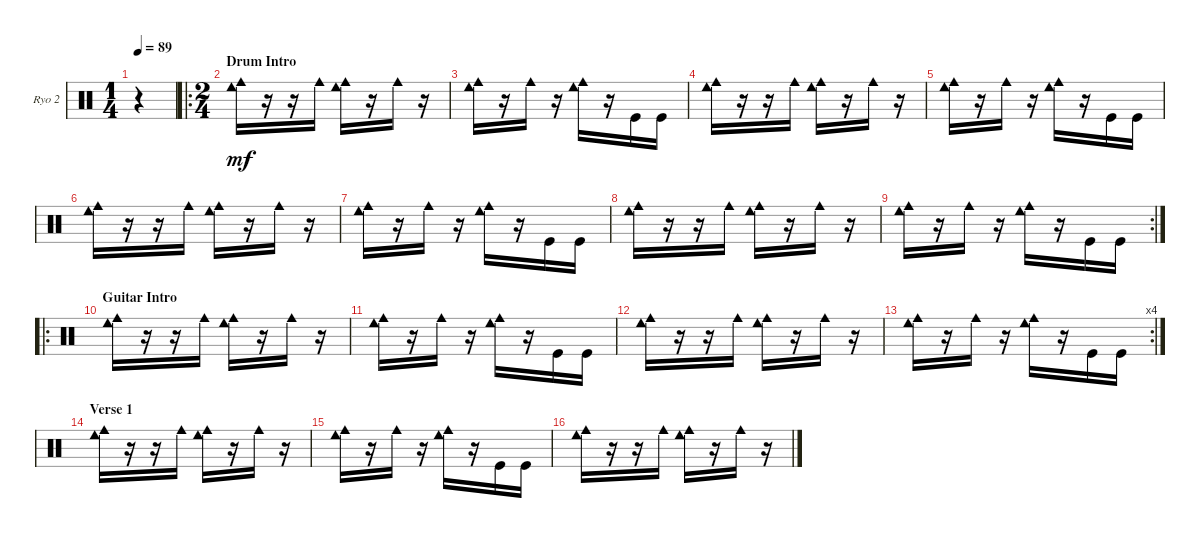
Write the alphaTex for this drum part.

\bracketExtendMode groupsimilarinstruments
\firstSystemTrackNameOrientation horizontal
\otherSystemsTrackNameOrientation horizontal
\track ("Ryo2 [Additional Drums]" "Ryo 2") {instrument percussion}
\staff {score}
\articulation defaults
\ts (1 4)
\tempo 89
\clef neutral
\ks c
r.4{dy mf} |
\ro
\ts (2 4)
\section ("" "Drum Intro")
\scale
0.502222 ("Cowbell low (hit)" "Cowbell medium (hit)").16 r.16 r.16 "Cowbell medium (hit)".16 ("Cowbell medium (hit)" "Cowbell low (hit)").16 r.16 "Cowbell medium (hit)".16 r.16 |
\scale
0.248889 ("Cowbell low (hit)" "Cowbell medium (hit)").16 r.16 "Cowbell medium (hit)".16 r.16 ("Cowbell medium (hit)" "Cowbell low (hit)").16 r.16 "Kick (hit)".16 "Kick (hit)".16 |
\scale
0.248889 ("Cowbell low (hit)" "Cowbell medium (hit)").16 r.16 r.16 "Cowbell medium (hit)".16 ("Cowbell medium (hit)" "Cowbell low (hit)").16 r.16 "Cowbell medium (hit)".16 r.16 |
\scale
0.333333 ("Cowbell low (hit)" "Cowbell medium (hit)").16 r.16 "Cowbell medium (hit)".16 r.16 ("Cowbell medium (hit)" "Cowbell low (hit)").16 r.16 "Kick (hit)".16 "Kick (hit)".16 |
\scale
0.333333 ("Cowbell low (hit)" "Cowbell medium (hit)").16 r.16 r.16 "Cowbell medium (hit)".16 ("Cowbell medium (hit)" "Cowbell low (hit)").16 r.16 "Cowbell medium (hit)".16 r.16 |
\scale
0.333333 ("Cowbell low (hit)" "Cowbell medium (hit)").16 r.16 "Cowbell medium (hit)".16 r.16 ("Cowbell medium (hit)" "Cowbell low (hit)").16 r.16 "Kick (hit)".16 "Kick (hit)".16 |
\scale
0.301075 ("Cowbell low (hit)" "Cowbell medium (hit)").16 r.16 r.16 "Cowbell medium (hit)".16 ("Cowbell medium (hit)" "Cowbell low (hit)").16 r.16 "Cowbell medium (hit)".16 r.16 |
\rc 2
\scale
0.333333 ("Cowbell low (hit)" "Cowbell medium (hit)").16 r.16 "Cowbell medium (hit)".16 r.16 ("Cowbell medium (hit)" "Cowbell low (hit)").16 r.16 "Kick (hit)".16 "Kick (hit)".16 |
\ro
\section ("" "Guitar Intro")
\scale
0.365591 ("Cowbell low (hit)" "Cowbell medium (hit)").16 r.16 r.16 "Cowbell medium (hit)".16 ("Cowbell medium (hit)" "Cowbell low (hit)").16 r.16 "Cowbell medium (hit)".16 r.16 |
\scale
0.321839 ("Cowbell low (hit)" "Cowbell medium (hit)").16 r.16 "Cowbell medium (hit)".16 r.16 ("Cowbell medium (hit)" "Cowbell low (hit)").16 r.16 "Kick (hit)".16 "Kick (hit)".16 |
\scale
0.321839 ("Cowbell low (hit)" "Cowbell medium (hit)").16 r.16 r.16 "Cowbell medium (hit)".16 ("Cowbell medium (hit)" "Cowbell low (hit)").16 r.16 "Cowbell medium (hit)".16 r.16 |
\rc 4
\scale
0.356322 ("Cowbell low (hit)" "Cowbell medium (hit)").16 r.16 "Cowbell medium (hit)".16 r.16 ("Cowbell medium (hit)" "Cowbell low (hit)").16 r.16 "Kick (hit)".16 "Kick (hit)".16 |
\section ("" "Verse 1")
("Cowbell low (hit)" "Cowbell medium (hit)").16 r.16 r.16 "Cowbell medium (hit)".16 ("Cowbell medium (hit)" "Cowbell low (hit)").16 r.16 "Cowbell medium (hit)".16 r.16 |
("Cowbell low (hit)" "Cowbell medium (hit)").16 r.16 "Cowbell medium (hit)".16 r.16 ("Cowbell medium (hit)" "Cowbell low (hit)").16 r.16 "Kick (hit)".16 "Kick (hit)".16 |
("Cowbell low (hit)" "Cowbell medium (hit)").16 r.16 r.16 "Cowbell medium (hit)".16 ("Cowbell medium (hit)" "Cowbell low (hit)").16 r.16 "Cowbell medium (hit)".16 r.16
